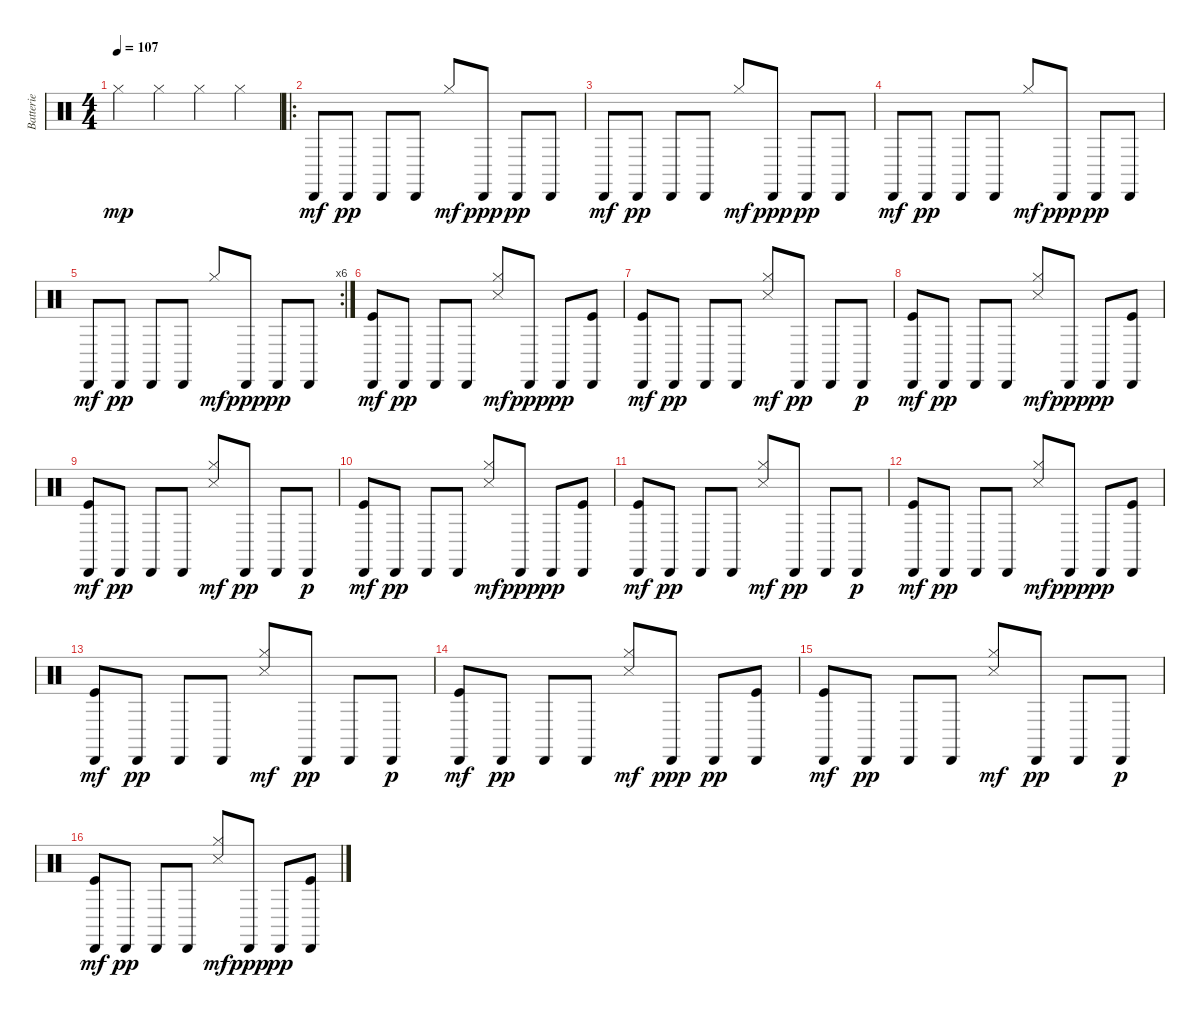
\track ("Batterie" "Batterie") {instrument percussion}
\staff {score}
\articulation defaults
\ts (4 4)
\tempo 107
\clef neutral
\ks c "Hi-Hat (closed)".4{dy mp} "Hi-Hat (closed)".4 "Hi-Hat (closed)".4 "Hi-Hat (closed)".4
|
\ro "Cabasa (hit)".8{dy mf} "Cabasa (hit)".8{dy pp} "Cabasa (hit)".8 "Cabasa (hit)".8 "Hi-Hat (closed)".8{dy mf} "Cabasa (hit)".8{dy ppp} "Cabasa (hit)".8{dy pp} "Cabasa (hit)".8
|
"Cabasa (hit)".8{dy mf} "Cabasa (hit)".8{dy pp} "Cabasa (hit)".8 "Cabasa (hit)".8 "Hi-Hat (closed)".8{dy mf} "Cabasa (hit)".8{dy ppp} "Cabasa (hit)".8{dy pp} "Cabasa (hit)".8 |
"Cabasa (hit)".8{dy mf} "Cabasa (hit)".8{dy pp} "Cabasa (hit)".8 "Cabasa (hit)".8 "Hi-Hat (closed)".8{dy mf} "Cabasa (hit)".8{dy ppp} "Cabasa (hit)".8{dy pp} "Cabasa (hit)".8 |
\rc 6 "Cabasa (hit)".8{dy mf} "Cabasa (hit)".8{dy pp} "Cabasa (hit)".8 "Cabasa (hit)".8 "Hi-Hat (closed)".8{dy mf} "Cabasa (hit)".8{dy ppp} "Cabasa (hit)".8{dy pp} "Cabasa (hit)".8
|
("Kick (hit)" "Cabasa (hit)").8{dy mf} "Cabasa (hit)".8{dy pp} "Cabasa (hit)".8 "Cabasa (hit)".8 ("Snare (side stick) 3" "Hi-Hat (closed)").8{dy mf} "Cabasa (hit)".8{dy ppp} "Cabasa (hit)".8{dy pp} ("Kick (hit)" "Cabasa (hit)").8 |
("Kick (hit)" "Cabasa (hit)").8{dy mf} "Cabasa (hit)".8{dy pp} "Cabasa (hit)".8 "Cabasa (hit)".8 ("Snare (side stick) 3" "Hi-Hat (closed)").8{dy mf} "Cabasa (hit)".8{dy pp} "Cabasa (hit)".8 "Cabasa (hit)".8{dy p} |
("Kick (hit)" "Cabasa (hit)").8{dy mf} "Cabasa (hit)".8{dy pp} "Cabasa (hit)".8 "Cabasa (hit)".8 ("Snare (side stick) 3" "Hi-Hat (closed)").8{dy mf} "Cabasa (hit)".8{dy ppp} "Cabasa (hit)".8{dy pp} ("Kick (hit)" "Cabasa (hit)").8 |
("Kick (hit)" "Cabasa (hit)").8{dy mf} "Cabasa (hit)".8{dy pp} "Cabasa (hit)".8 "Cabasa (hit)".8 ("Snare (side stick) 3" "Hi-Hat (closed)").8{dy mf} "Cabasa (hit)".8{dy pp} "Cabasa (hit)".8 "Cabasa (hit)".8{dy p} |
("Kick (hit)" "Cabasa (hit)").8{dy mf} "Cabasa (hit)".8{dy pp} "Cabasa (hit)".8 "Cabasa (hit)".8 ("Snare (side stick) 3" "Hi-Hat (closed)").8{dy mf} "Cabasa (hit)".8{dy ppp} "Cabasa (hit)".8{dy pp} ("Kick (hit)" "Cabasa (hit)").8 |
("Kick (hit)" "Cabasa (hit)").8{dy mf} "Cabasa (hit)".8{dy pp} "Cabasa (hit)".8 "Cabasa (hit)".8 ("Snare (side stick) 3" "Hi-Hat (closed)").8{dy mf} "Cabasa (hit)".8{dy pp} "Cabasa (hit)".8 "Cabasa (hit)".8{dy p} |
("Kick (hit)" "Cabasa (hit)").8{dy mf} "Cabasa (hit)".8{dy pp} "Cabasa (hit)".8 "Cabasa (hit)".8 ("Snare (side stick) 3" "Hi-Hat (closed)").8{dy mf} "Cabasa (hit)".8{dy ppp} "Cabasa (hit)".8{dy pp} ("Kick (hit)" "Cabasa (hit)").8 |
("Kick (hit)" "Cabasa (hit)").8{dy mf} "Cabasa (hit)".8{dy pp} "Cabasa (hit)".8 "Cabasa (hit)".8 ("Snare (side stick) 3" "Hi-Hat (closed)").8{dy mf} "Cabasa (hit)".8{dy pp} "Cabasa (hit)".8 "Cabasa (hit)".8{dy p} |
("Kick (hit)" "Cabasa (hit)").8{dy mf} "Cabasa (hit)".8{dy pp} "Cabasa (hit)".8 "Cabasa (hit)".8 ("Snare (side stick) 3" "Hi-Hat (closed)").8{dy mf} "Cabasa (hit)".8{dy ppp} "Cabasa (hit)".8{dy pp} ("Kick (hit)" "Cabasa (hit)").8 |
("Kick (hit)" "Cabasa (hit)").8{dy mf} "Cabasa (hit)".8{dy pp} "Cabasa (hit)".8 "Cabasa (hit)".8 ("Snare (side stick) 3" "Hi-Hat (closed)").8{dy mf} "Cabasa (hit)".8{dy pp} "Cabasa (hit)".8 "Cabasa (hit)".8{dy p} |
("Kick (hit)" "Cabasa (hit)").8{dy mf} "Cabasa (hit)".8{dy pp} "Cabasa (hit)".8 "Cabasa (hit)".8 ("Snare (side stick) 3" "Hi-Hat (closed)").8{dy mf} "Cabasa (hit)".8{dy ppp} "Cabasa (hit)".8{dy pp} ("Kick (hit)" "Cabasa (hit)").8
